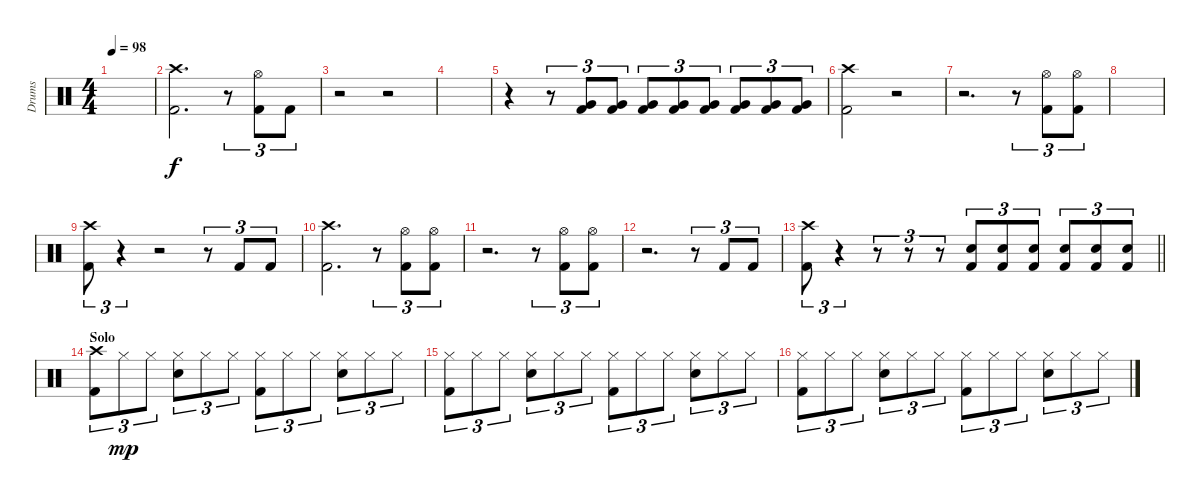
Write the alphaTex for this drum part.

\track ("Drums" "Drums") {instrument percussion}
\staff {score}
\articulation defaults
\ts (4 4)
\tempo 98
\clef neutral
\ks c
|
("Crash high (hit)" "Kick (hit) 2").2{d volume 6} r.8{tu (3 2)} ("Hi-Hat (open)" "Kick (hit) 2").8{tu (3 2)} "Kick (hit) 2".8{tu (3 2)} |
r.2 r.2 |
|
r.4 r.8{tu (3 2)} ("Very Low Tom (hit)" "Kick (hit) 2").8{tu (3 2)} ("Very Low Tom (hit)" "Kick (hit) 2").8{tu (3 2)} ("Very Low Tom (hit)" "Kick (hit) 2").8{tu (3 2)} ("Very Low Tom (hit)" "Kick (hit) 2").8{tu (3 2)} ("Very Low Tom (hit)" "Kick (hit) 2").8{tu (3 2)} ("Very Low Tom (hit)" "Kick (hit) 2").8{tu (3 2)} ("Very Low Tom (hit)" "Kick (hit) 2").8{tu (3 2)} ("Very Low Tom (hit)" "Kick (hit) 2").8{tu (3 2)} |
("Crash high (hit)" "Kick (hit) 2").2 r.2 |
r.2{d} r.8{tu (3 2)} ("Hi-Hat (open)" "Kick (hit) 2").8{tu (3 2)} ("Hi-Hat (open)" "Kick (hit) 2").8{tu (3 2)} |
|
("Crash high (hit)" "Kick (hit) 2").8{tu (3 2)} r.4{tu (3 2)} r.2 r.8{tu (3 2)} "Kick (hit) 2".8{tu (3 2)} "Kick (hit) 2".8{tu (3 2)} |
("Crash high (hit)" "Kick (hit) 2").2{d} r.8{tu (3 2)} ("Hi-Hat (open)" "Kick (hit) 2").8{tu (3 2)} ("Hi-Hat (open)" "Kick (hit) 2").8{tu (3 2)} |
r.2{d} r.8{tu (3 2)} ("Hi-Hat (open)" "Kick (hit) 2").8{tu (3 2)} ("Hi-Hat (open)" "Kick (hit) 2").8{tu (3 2)} |
r.2{d} r.8{tu (3 2)} "Kick (hit) 2".8{tu (3 2)} "Kick (hit) 2".8{tu (3 2)} |
\barLineRight lightlight
("Crash high (hit)" "Kick (hit) 2").8{tu (3 2)} r.4{tu (3 2)} r.8{tu (3 2)} r.8{tu (3 2)} r.8{tu (3 2)} ("Snare (hit) 2" "Kick (hit) 2").8{tu (3 2) volume 9} ("Snare (hit) 2" "Kick (hit) 2").8{tu (3 2)} ("Snare (hit) 2" "Kick (hit) 2").8{tu (3 2)} ("Snare (hit) 2" "Kick (hit) 2").8{tu (3 2)} ("Snare (hit) 2" "Kick (hit) 2").8{tu (3 2)} ("Snare (hit) 2" "Kick (hit) 2").8{tu (3 2)} |
\section ("" "Solo")
("Crash high (hit)" "Kick (hit) 2").8{tu (3 2)} "Hi-Hat (closed)".8{tu (3 2) dy mp} "Hi-Hat (closed)".8{tu (3 2)} ("Hi-Hat (closed)" "Snare (hit) 2").8{tu (3 2)} "Hi-Hat (closed)".8{tu (3 2)} "Hi-Hat (closed)".8{tu (3 2)} ("Hi-Hat (closed)" "Kick (hit) 2").8{tu (3 2)} "Hi-Hat (closed)".8{tu (3 2)} "Hi-Hat (closed)".8{tu (3 2)} ("Hi-Hat (closed)" "Snare (hit) 2").8{tu (3 2)} "Hi-Hat (closed)".8{tu (3 2)} "Hi-Hat (closed)".8{tu (3 2)} |
("Hi-Hat (closed)" "Kick (hit) 2").8{tu (3 2)} "Hi-Hat (closed)".8{tu (3 2)} "Hi-Hat (closed)".8{tu (3 2)} ("Hi-Hat (closed)" "Snare (hit) 2").8{tu (3 2)} "Hi-Hat (closed)".8{tu (3 2)} "Hi-Hat (closed)".8{tu (3 2)} ("Hi-Hat (closed)" "Kick (hit) 2").8{tu (3 2)} "Hi-Hat (closed)".8{tu (3 2)} "Hi-Hat (closed)".8{tu (3 2)} ("Hi-Hat (closed)" "Snare (hit) 2").8{tu (3 2)} "Hi-Hat (closed)".8{tu (3 2)} "Hi-Hat (closed)".8{tu (3 2)} |
("Hi-Hat (closed)" "Kick (hit) 2").8{tu (3 2)} "Hi-Hat (closed)".8{tu (3 2)} "Hi-Hat (closed)".8{tu (3 2)} ("Hi-Hat (closed)" "Snare (hit) 2").8{tu (3 2)} "Hi-Hat (closed)".8{tu (3 2)} "Hi-Hat (closed)".8{tu (3 2)} ("Hi-Hat (closed)" "Kick (hit) 2").8{tu (3 2)} "Hi-Hat (closed)".8{tu (3 2)} "Hi-Hat (closed)".8{tu (3 2)} ("Hi-Hat (closed)" "Snare (hit) 2").8{tu (3 2)} "Hi-Hat (closed)".8{tu (3 2)} "Hi-Hat (closed)".8{tu (3 2)}
